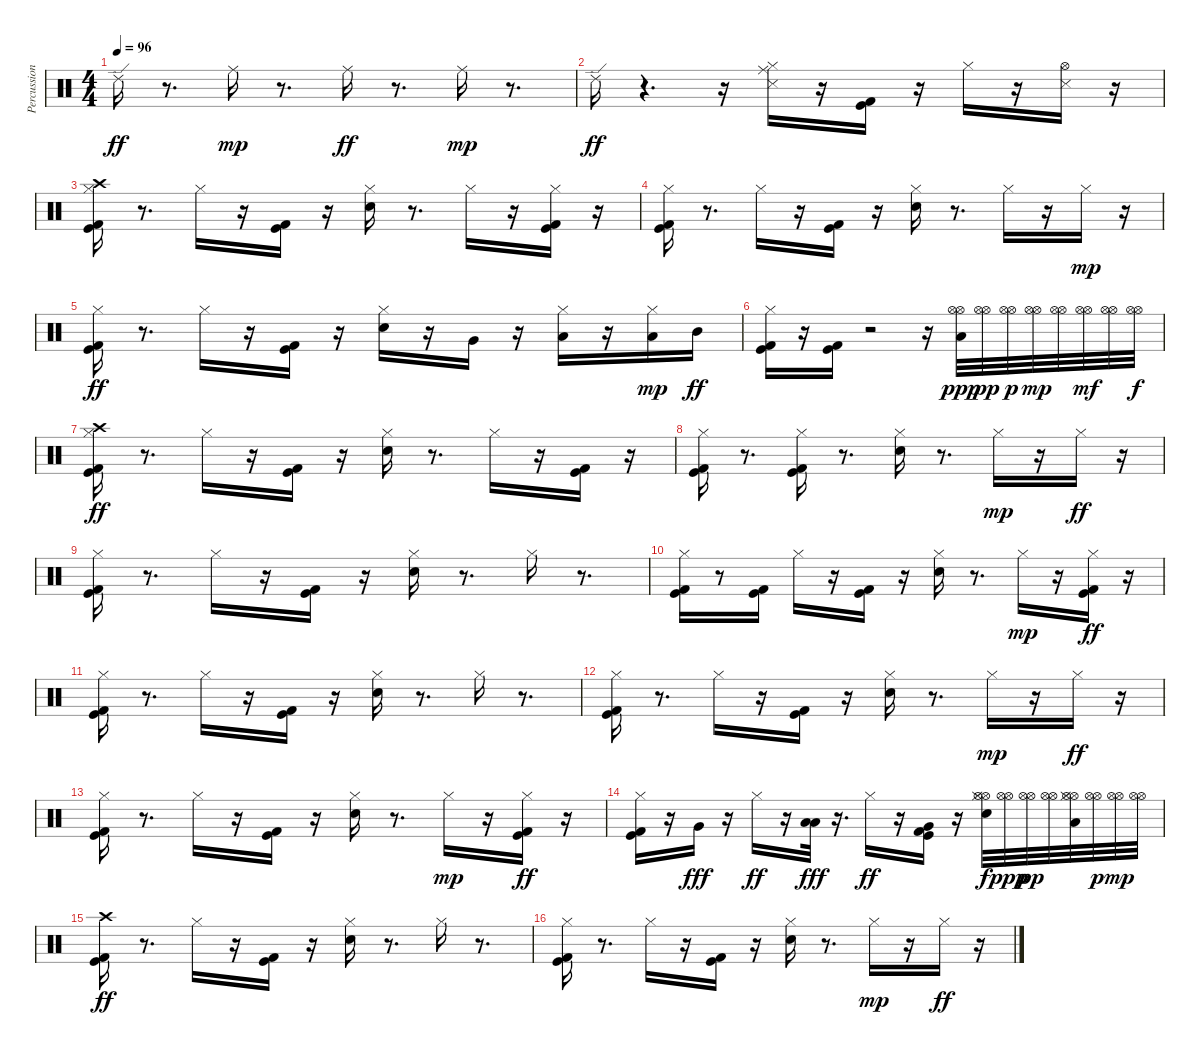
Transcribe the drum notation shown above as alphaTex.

\track ("Percussion" "Percussion") {instrument percussion}
\staff {score}
\articulation defaults
\ts (4 4)
\tempo 96
\clef neutral
\ks c "Ride (edge) 2".16{dy ff}
r.8{d} "Ride (middle)".16{dy mp} r.8{d} "Ride (middle)".16{dy ff} r.8{d} "Ride (middle)".16{dy mp} r.8{d} |
"Ride (edge) 2".16{dy ff} r.4{d} r.16 ("Snare (side stick) 3" "Ride (middle)" "Hi-Hat (closed)").16 r.16 ("Kick (hit)" "Kick (hit) 2").16 r.16 "Hi-Hat (closed)".16 r.16 ("Snare (side stick) 3" "Hi-Hat (open)").16 r.16 |
("Hi-Hat (closed)" "Crash high (hit)" "Kick (hit)" "Kick (hit) 2").16 r.8{d} "Hi-Hat (closed)".16 r.16 ("Kick (hit)" "Kick (hit) 2").16 r.16 ("Electric Snare (hit)" "Hi-Hat (closed)").16 r.8{d} "Hi-Hat (closed)".16 r.16 ("Hi-Hat (closed)" "Kick (hit)" "Kick (hit) 2").16 r.16 |
("Hi-Hat (closed)" "Kick (hit) 2" "Kick (hit)").16 r.8{d} "Hi-Hat (closed)".16 r.16 ("Kick (hit)" "Kick (hit) 2").16 r.16 ("Electric Snare (hit)" "Hi-Hat (closed)").16 r.8{d} "Hi-Hat (closed)".16 r.16 "Hi-Hat (closed)".16{dy mp} r.16 |
("Hi-Hat (closed)" "Kick (hit) 2" "Kick (hit)").16{dy ff} r.8{d} "Hi-Hat (closed)".16 r.16 ("Kick (hit)" "Kick (hit) 2").16 r.16 ("Electric Snare (hit)" "Hi-Hat (closed)").16 r.16 "Very Low Tom (hit)".16 r.16 ("Low Tom (hit)" "Hi-Hat (closed)").16 r.16 ("Low Tom (hit)" "Hi-Hat (closed)").16{dy mp} "Mid Tom (hit)".16{dy ff} |
("Hi-Hat (closed)" "Kick (hit)" "Kick (hit) 2").16 r.16 ("Kick (hit) 2" "Kick (hit)").16 r.2 r.16 ("Low Tom (hit)" "Hi-Hat (open)" "Hi-Hat (open)").32{dy ppp} ("Hi-Hat (open)" "Hi-Hat (open)").32{dy pp} ("Hi-Hat (open)" "Hi-Hat (open)").32{dy p} ("Hi-Hat (open)" "Hi-Hat (open)").32{dy mp} ("Hi-Hat (open)" "Hi-Hat (open)").32 ("Hi-Hat (open)" "Hi-Hat (open)").32{dy mf} ("Hi-Hat (open)" "Hi-Hat (open)").32 ("Hi-Hat (open)" "Hi-Hat (open)").32{dy f} |
("Hi-Hat (closed)" "Crash high (hit)" "Kick (hit)" "Kick (hit) 2").16{dy ff} r.8{d} "Hi-Hat (closed)".16 r.16 ("Kick (hit)" "Kick (hit) 2").16 r.16 ("Electric Snare (hit)" "Hi-Hat (closed)").16 r.8{d} "Hi-Hat (closed)".16 r.16 ("Kick (hit)" "Kick (hit) 2").16 r.16 |
("Hi-Hat (closed)" "Kick (hit) 2" "Kick (hit)").16 r.8{d} ("Hi-Hat (closed)" "Kick (hit)" "Kick (hit) 2").16 r.8{d} ("Electric Snare (hit)" "Hi-Hat (closed)").16 r.8{d} "Hi-Hat (closed)".16{dy mp} r.16 "Hi-Hat (closed)".16{dy ff} r.16 |
("Hi-Hat (closed)" "Kick (hit) 2" "Kick (hit)").16 r.8{d} "Hi-Hat (closed)".16 r.16 ("Kick (hit)" "Kick (hit) 2").16 r.16 ("Electric Snare (hit)" "Hi-Hat (closed)").16 r.8{d} "Hi-Hat (closed)".16 r.8{d} |
("Hi-Hat (closed)" "Kick (hit)" "Kick (hit) 2").16 r.8 ("Kick (hit)" "Kick (hit) 2").16 "Hi-Hat (closed)".16 r.16 ("Kick (hit)" "Kick (hit) 2").16 r.16 ("Electric Snare (hit)" "Hi-Hat (closed)").16 r.8{d} "Hi-Hat (closed)".16{dy mp} r.16 ("Hi-Hat (closed)" "Kick (hit)" "Kick (hit) 2").16{dy ff} r.16 |
("Hi-Hat (closed)" "Kick (hit) 2" "Kick (hit)").16 r.8{d} "Hi-Hat (closed)".16 r.16 ("Kick (hit)" "Kick (hit) 2").16 r.16 ("Electric Snare (hit)" "Hi-Hat (closed)").16 r.8{d} "Hi-Hat (closed)".16 r.8{d} |
("Hi-Hat (closed)" "Kick (hit) 2" "Kick (hit)").16 r.8{d} "Hi-Hat (closed)".16 r.16 ("Kick (hit)" "Kick (hit) 2").16 r.16 ("Electric Snare (hit)" "Hi-Hat (closed)").16 r.8{d} "Hi-Hat (closed)".16{dy mp} r.16 "Hi-Hat (closed)".16{dy ff} r.16 |
("Hi-Hat (closed)" "Kick (hit) 2" "Kick (hit)").16 r.8{d} "Hi-Hat (closed)".16 r.16 ("Kick (hit)" "Kick (hit) 2").16 r.16 ("Electric Snare (hit)" "Hi-Hat (closed)").16 r.8{d} "Hi-Hat (closed)".16{dy mp} r.16 ("Hi-Hat (closed)" "Kick (hit)" "Kick (hit) 2").16{dy ff} r.16 |
("Hi-Hat (closed)" "Kick (hit) 2" "Kick (hit)").16 r.16 "Very Low Tom (hit)".16{dy fff} r.16 "Hi-Hat (closed)".16{dy ff} r.16 ("Low Tom (hit)" "Low Tom (hit)").32{dy fff} r.16{d} "Hi-Hat (closed)".16{dy ff} r.16 ("Very Low Tom (hit)" "Kick (hit)" "Kick (hit) 2").16 r.16 ("Electric Snare (hit)" "Hi-Hat (open)" "Hi-Hat (closed)" "Hi-Hat (open)").32{dy f} ("Hi-Hat (open)" "Hi-Hat (open)").32{dy ppp} ("Hi-Hat (open)" "Hi-Hat (open)").32{dy pp} ("Hi-Hat (open)" "Hi-Hat (open)").32 ("Low Floor Tom (hit)" "Hi-Hat (open)" "Hi-Hat (closed)" "Hi-Hat (open)").32 ("Hi-Hat (open)" "Hi-Hat (open)").32{dy p} ("Hi-Hat (open)" "Hi-Hat (open)").32{dy mp} ("Hi-Hat (open)" "Hi-Hat (open)").32 |
("Crash high (hit)" "Kick (hit)" "Kick (hit) 2").16{dy ff} r.8{d} "Hi-Hat (closed)".16 r.16 ("Kick (hit)" "Kick (hit) 2").16 r.16 ("Electric Snare (hit)" "Hi-Hat (closed)").16 r.8{d} "Hi-Hat (closed)".16 r.8{d} |
("Hi-Hat (closed)" "Kick (hit) 2" "Kick (hit)").16 r.8{d} "Hi-Hat (closed)".16 r.16 ("Kick (hit)" "Kick (hit) 2").16 r.16 ("Electric Snare (hit)" "Hi-Hat (closed)").16 r.8{d} "Hi-Hat (closed)".16{dy mp} r.16 "Hi-Hat (closed)".16{dy ff} r.16
